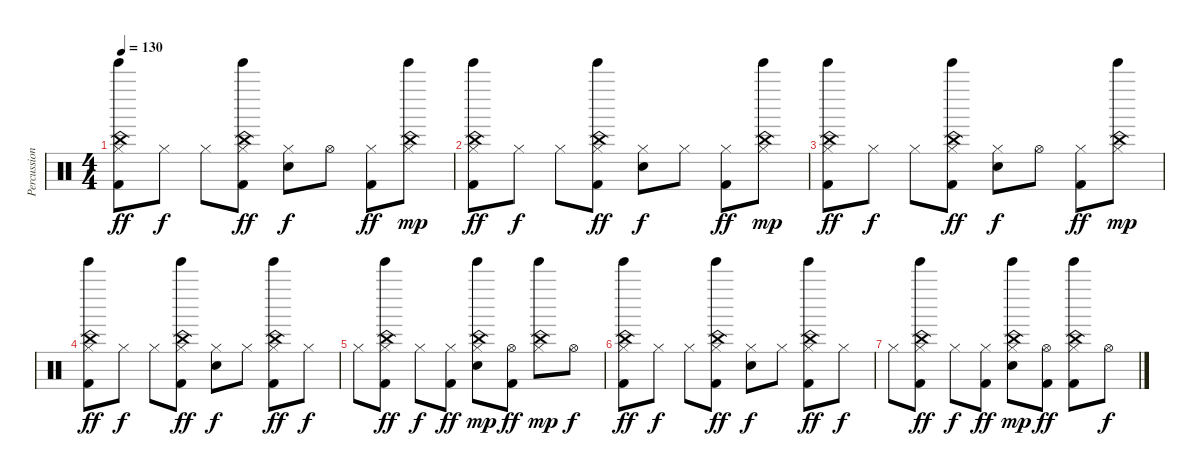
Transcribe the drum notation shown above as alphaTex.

\track ("Percussion" "Percussion") {instrument percussion}
\staff {score}
\articulation defaults
\ts (4 4)
\tempo 130
\clef neutral
\ks c
("Hi-Hat (closed)" "China (hit)" "Tinkle Bell (hit)" "Kick (hit) 2").8{dy ff} "Hi-Hat (closed)".8{dy f} "Hi-Hat (closed)".8 ("Hi-Hat (closed)" "China (hit)" "Tinkle Bell (hit)" "Kick (hit) 2").8{dy ff} ("Hi-Hat (closed)" "Snare (hit) 2").8{dy f} "Hi-Hat (open)".8 ("Hi-Hat (closed)" "Kick (hit) 2").8{dy ff} ("Hi-Hat (closed)" "China (hit)" "Tinkle Bell (hit)").8{dy mp} |
("Hi-Hat (closed)" "China (hit)" "Tinkle Bell (hit)" "Kick (hit) 2").8{dy ff} "Hi-Hat (closed)".8{dy f} "Hi-Hat (closed)".8 ("Hi-Hat (closed)" "China (hit)" "Tinkle Bell (hit)" "Kick (hit) 2").8{dy ff} ("Hi-Hat (closed)" "Snare (hit) 2").8{dy f} "Hi-Hat (closed)".8 ("Hi-Hat (closed)" "Kick (hit) 2").8{dy ff} ("Hi-Hat (closed)" "China (hit)" "Tinkle Bell (hit)").8{dy mp} |
("Hi-Hat (closed)" "China (hit)" "Tinkle Bell (hit)" "Kick (hit) 2").8{dy ff} "Hi-Hat (closed)".8{dy f} "Hi-Hat (closed)".8 ("Hi-Hat (closed)" "China (hit)" "Tinkle Bell (hit)" "Kick (hit) 2").8{dy ff} ("Hi-Hat (closed)" "Snare (hit) 2").8{dy f} "Hi-Hat (open)".8 ("Hi-Hat (closed)" "Kick (hit) 2").8{dy ff} ("Hi-Hat (closed)" "China (hit)" "Tinkle Bell (hit)").8{dy mp} |
\ks aminor
("Hi-Hat (closed)" "China (hit)" "Tinkle Bell (hit)" "Kick (hit) 2").8{dy ff} "Hi-Hat (closed)".8{dy f} "Hi-Hat (closed)".8 ("Hi-Hat (closed)" "China (hit)" "Tinkle Bell (hit)" "Kick (hit) 2").8{dy ff} ("Hi-Hat (closed)" "Snare (hit) 2").8{dy f} "Hi-Hat (closed)".8 ("Hi-Hat (closed)" "China (hit)" "Tinkle Bell (hit)" "Kick (hit) 2").8{dy ff} "Hi-Hat (closed)".8{dy f} |
"Hi-Hat (closed)".8 ("Hi-Hat (closed)" "China (hit)" "Tinkle Bell (hit)" "Kick (hit) 2").8{dy ff} "Hi-Hat (closed)".8{dy f} ("Hi-Hat (closed)" "Kick (hit) 2").8{dy ff} ("Hi-Hat (closed)" "China (hit)" "Tinkle Bell (hit)" "Snare (hit) 2").8{dy mp} ("Hi-Hat (open)" "Kick (hit) 2").8{dy ff} ("Hi-Hat (closed)" "China (hit)" "Tinkle Bell (hit)").8{dy mp} "Hi-Hat (open)".8{dy f} |
("Hi-Hat (closed)" "China (hit)" "Tinkle Bell (hit)" "Kick (hit) 2").8{dy ff} "Hi-Hat (closed)".8{dy f} "Hi-Hat (closed)".8 ("Hi-Hat (closed)" "China (hit)" "Tinkle Bell (hit)" "Kick (hit) 2").8{dy ff} ("Hi-Hat (closed)" "Snare (hit) 2").8{dy f} "Hi-Hat (closed)".8 ("Hi-Hat (closed)" "China (hit)" "Tinkle Bell (hit)" "Kick (hit) 2").8{dy ff} "Hi-Hat (closed)".8{dy f} |
"Hi-Hat (closed)".8 ("Hi-Hat (closed)" "China (hit)" "Tinkle Bell (hit)" "Kick (hit) 2").8{dy ff} "Hi-Hat (closed)".8{dy f} ("Hi-Hat (closed)" "Kick (hit) 2").8{dy ff} ("Hi-Hat (closed)" "China (hit)" "Tinkle Bell (hit)" "Snare (hit) 2").8{dy mp} ("Hi-Hat (open)" "Kick (hit) 2").8{dy ff} ("Hi-Hat (closed)" "China (hit)" "Tinkle Bell (hit)" "Kick (hit) 2").8 "Hi-Hat (open)".8{dy f}
